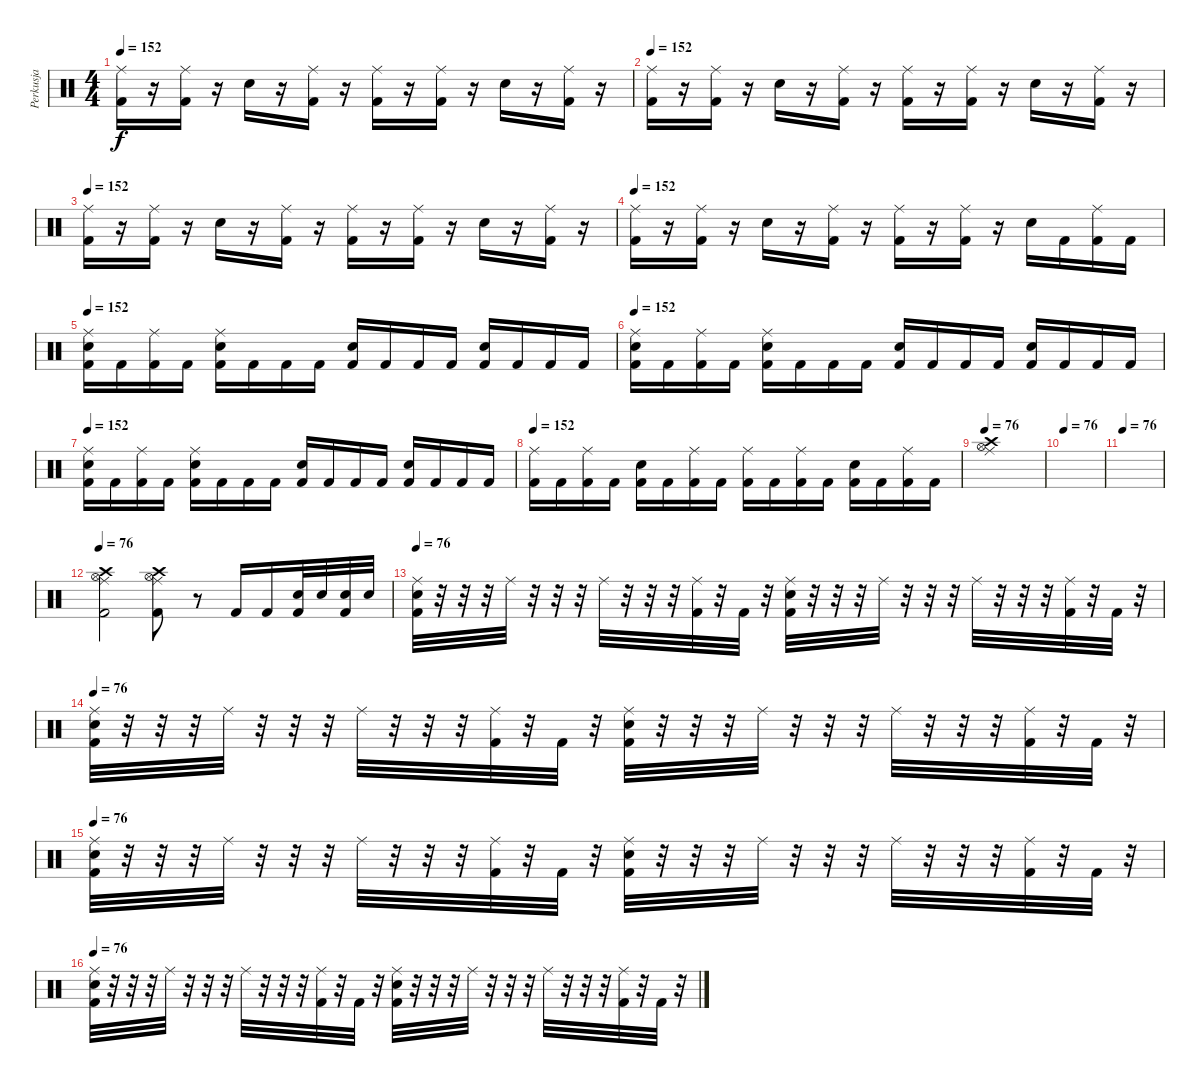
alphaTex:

\track ("Perkusja" "Perkusja") {instrument percussion}
\staff {score}
\articulation defaults
\ts (4 4)
\tempo 152
\clef neutral
\ks c
("Ride (middle)" "Kick (hit) 2").16{dy f} r.16 ("Ride (middle)" "Kick (hit) 2").16 r.16 "Snare (hit) 2".16 r.16 ("Ride (middle)" "Kick (hit) 2").16 r.16 ("Ride (middle)" "Kick (hit) 2").16 r.16 ("Ride (middle)" "Kick (hit) 2").16 r.16 "Snare (hit) 2".16 r.16 ("Ride (middle)" "Kick (hit) 2").16 r.16 |
\tempo 152
("Ride (middle)" "Kick (hit) 2").16 r.16 ("Ride (middle)" "Kick (hit) 2").16 r.16 "Snare (hit) 2".16 r.16 ("Ride (middle)" "Kick (hit) 2").16 r.16 ("Ride (middle)" "Kick (hit) 2").16 r.16 ("Ride (middle)" "Kick (hit) 2").16 r.16 "Snare (hit) 2".16 r.16 ("Ride (middle)" "Kick (hit) 2").16 r.16 |
\tempo 152
("Ride (middle)" "Kick (hit) 2").16 r.16 ("Ride (middle)" "Kick (hit) 2").16 r.16 "Snare (hit) 2".16 r.16 ("Ride (middle)" "Kick (hit) 2").16 r.16 ("Ride (middle)" "Kick (hit) 2").16 r.16 ("Ride (middle)" "Kick (hit) 2").16 r.16 "Snare (hit) 2".16 r.16 ("Ride (middle)" "Kick (hit) 2").16 r.16 |
\tempo 152
("Ride (middle)" "Kick (hit) 2").16 r.16 ("Ride (middle)" "Kick (hit) 2").16 r.16 "Snare (hit) 2".16 r.16 ("Ride (middle)" "Kick (hit) 2").16 r.16 ("Ride (middle)" "Kick (hit) 2").16 r.16 ("Ride (middle)" "Kick (hit) 2").16 r.16 "Snare (hit) 2".16 "Kick (hit) 2".16 ("Ride (middle)" "Kick (hit) 2").16 "Kick (hit) 2".16 |
\tempo 152
("Ride (middle)" "Kick (hit) 2" "Snare (hit) 2").16 "Kick (hit) 2".16 ("Ride (middle)" "Kick (hit) 2").16 "Kick (hit) 2".16 ("Ride (middle)" "Kick (hit) 2" "Snare (hit) 2").16 "Kick (hit) 2".16 "Kick (hit) 2".16 "Kick (hit) 2".16 ("Kick (hit) 2" "Snare (hit) 2").16 "Kick (hit) 2".16 "Kick (hit) 2".16 "Kick (hit) 2".16 ("Kick (hit) 2" "Snare (hit) 2").16 "Kick (hit) 2".16 "Kick (hit) 2".16 "Kick (hit) 2".16 |
\tempo 152
("Ride (middle)" "Kick (hit) 2" "Snare (hit) 2").16 "Kick (hit) 2".16 ("Ride (middle)" "Kick (hit) 2").16 "Kick (hit) 2".16 ("Ride (middle)" "Kick (hit) 2" "Snare (hit) 2").16 "Kick (hit) 2".16 "Kick (hit) 2".16 "Kick (hit) 2".16 ("Kick (hit) 2" "Snare (hit) 2").16 "Kick (hit) 2".16 "Kick (hit) 2".16 "Kick (hit) 2".16 ("Kick (hit) 2" "Snare (hit) 2").16 "Kick (hit) 2".16 "Kick (hit) 2".16 "Kick (hit) 2".16 |
\tempo 152
("Ride (middle)" "Kick (hit) 2" "Snare (hit) 2").16 "Kick (hit) 2".16 ("Ride (middle)" "Kick (hit) 2").16 "Kick (hit) 2".16 ("Ride (middle)" "Kick (hit) 2" "Snare (hit) 2").16 "Kick (hit) 2".16 "Kick (hit) 2".16 "Kick (hit) 2".16 ("Kick (hit) 2" "Snare (hit) 2").16 "Kick (hit) 2".16 "Kick (hit) 2".16 "Kick (hit) 2".16 ("Kick (hit) 2" "Snare (hit) 2").16 "Kick (hit) 2".16 "Kick (hit) 2".16 "Kick (hit) 2".16 |
\tempo 152
("Ride (middle)" "Kick (hit) 2").16 "Kick (hit) 2".16 ("Ride (middle)" "Kick (hit) 2").16 "Kick (hit) 2".16 ("Snare (hit) 2" "Kick (hit) 2").16 "Kick (hit) 2".16 ("Ride (middle)" "Kick (hit) 2").16 "Kick (hit) 2".16 ("Ride (middle)" "Kick (hit) 2").16 "Kick (hit) 2".16 ("Ride (middle)" "Kick (hit) 2").16 "Kick (hit) 2".16 ("Snare (hit) 2" "Kick (hit) 2").16 "Kick (hit) 2".16 ("Ride (middle)" "Kick (hit) 2").16 "Kick (hit) 2".16 |
\tempo 76
("Ride (middle)" "Hi-Hat (open)" "Crash high (hit)").1 |
\tempo 76
|
\tempo 76
|
\tempo 76
("Ride (middle)" "Hi-Hat (open)" "Crash high (hit)" "Kick (hit) 2").2 ("Ride (middle)" "Hi-Hat (open)" "Crash high (hit)" "Kick (hit) 2").8 r.8 "Kick (hit) 2".16 "Kick (hit) 2".16 ("Snare (hit) 2" "Kick (hit) 2").32 "Snare (hit) 2".32 ("Snare (hit) 2" "Kick (hit) 2").32 "Snare (hit) 2".32 |
\tempo 76
("Ride (middle)" "Snare (hit) 2" "Kick (hit) 2").32 r.32 r.32 r.32 "Ride (middle)".32 r.32 r.32 r.32 "Ride (middle)".32 r.32 r.32 r.32 ("Ride (middle)" "Kick (hit) 2").32 r.32 "Kick (hit) 2".32 r.32 ("Ride (middle)" "Snare (hit) 2" "Kick (hit) 2").32 r.32 r.32 r.32 "Ride (middle)".32 r.32 r.32 r.32 "Ride (middle)".32 r.32 r.32 r.32 ("Ride (middle)" "Kick (hit) 2").32 r.32 "Kick (hit) 2".32 r.32 |
\tempo 76
("Ride (middle)" "Snare (hit) 2" "Kick (hit) 2").32 r.32 r.32 r.32 "Ride (middle)".32 r.32 r.32 r.32 "Ride (middle)".32 r.32 r.32 r.32 ("Ride (middle)" "Kick (hit) 2").32 r.32 "Kick (hit) 2".32 r.32 ("Ride (middle)" "Snare (hit) 2" "Kick (hit) 2").32 r.32 r.32 r.32 "Ride (middle)".32 r.32 r.32 r.32 "Ride (middle)".32 r.32 r.32 r.32 ("Ride (middle)" "Kick (hit) 2").32 r.32 "Kick (hit) 2".32 r.32 |
\tempo 76
("Ride (middle)" "Snare (hit) 2" "Kick (hit) 2").32 r.32 r.32 r.32 "Ride (middle)".32 r.32 r.32 r.32 "Ride (middle)".32 r.32 r.32 r.32 ("Ride (middle)" "Kick (hit) 2").32 r.32 "Kick (hit) 2".32 r.32 ("Ride (middle)" "Snare (hit) 2" "Kick (hit) 2").32 r.32 r.32 r.32 "Ride (middle)".32 r.32 r.32 r.32 "Ride (middle)".32 r.32 r.32 r.32 ("Ride (middle)" "Kick (hit) 2").32 r.32 "Kick (hit) 2".32 r.32 |
\tempo 76
("Ride (middle)" "Snare (hit) 2" "Kick (hit) 2").32 r.32 r.32 r.32 "Ride (middle)".32 r.32 r.32 r.32 "Ride (middle)".32 r.32 r.32 r.32 ("Ride (middle)" "Kick (hit) 2").32 r.32 "Kick (hit) 2".32 r.32 ("Ride (middle)" "Snare (hit) 2" "Kick (hit) 2").32 r.32 r.32 r.32 "Ride (middle)".32 r.32 r.32 r.32 "Ride (middle)".32 r.32 r.32 r.32 ("Ride (middle)" "Kick (hit) 2").32 r.32 "Kick (hit) 2".32 r.32
